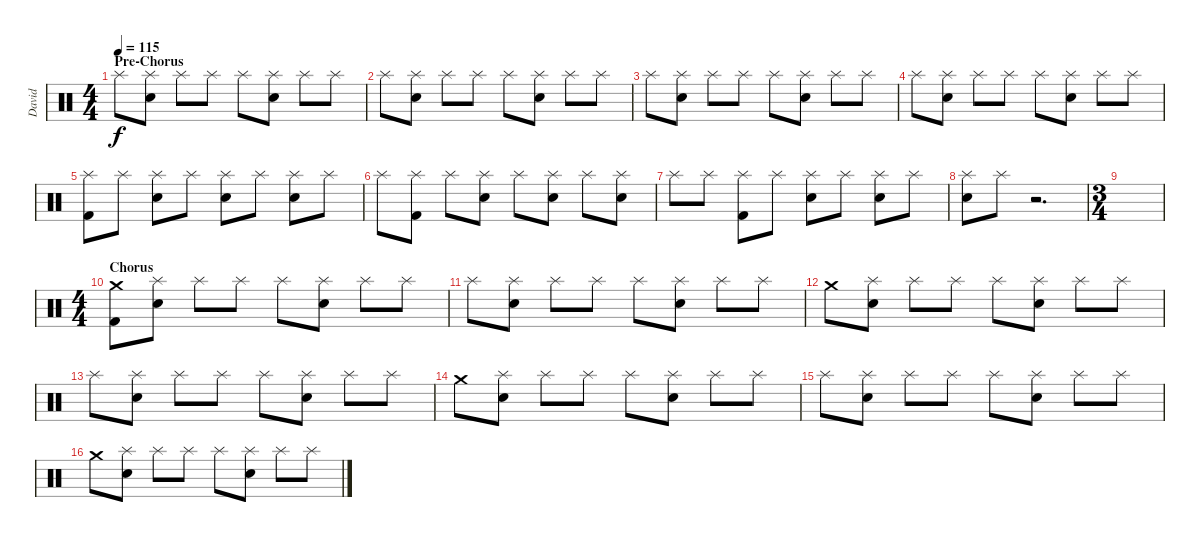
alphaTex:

\track ("David" "David") {instrument percussion}
\staff {score}
\articulation defaults
\ts (4 4)
\section ("" "Pre-Chorus")
\tempo 115
\clef neutral
\ks c "Splash (hit)".8{dy f}
("Splash (hit)" "Electric Snare (hit)").8 "Splash (hit)".8 "Splash (hit)".8 "Splash (hit)".8 ("Splash (hit)" "Electric Snare (hit)").8 "Splash (hit)".8 "Splash (hit)".8 |
"Splash (hit)".8 ("Splash (hit)" "Electric Snare (hit)").8 "Splash (hit)".8 "Splash (hit)".8 "Splash (hit)".8 ("Splash (hit)" "Electric Snare (hit)").8 "Splash (hit)".8 "Splash (hit)".8 |
"Splash (hit)".8 ("Splash (hit)" "Electric Snare (hit)").8 "Splash (hit)".8 "Splash (hit)".8 "Splash (hit)".8 ("Splash (hit)" "Electric Snare (hit)").8 "Splash (hit)".8 "Splash (hit)".8 |
"Splash (hit)".8 ("Splash (hit)" "Electric Snare (hit)").8 "Splash (hit)".8 "Splash (hit)".8 "Splash (hit)".8 ("Splash (hit)" "Electric Snare (hit)").8 "Splash (hit)".8 "Splash (hit)".8 |
("Splash (hit)" "Kick (hit) 2").8 "Splash (hit)".8 ("Splash (hit)" "Electric Snare (hit)").8 "Splash (hit)".8 ("Splash (hit)" "Electric Snare (hit)").8 "Splash (hit)".8 ("Splash (hit)" "Electric Snare (hit)").8 "Splash (hit)".8 |
"Splash (hit)".8 ("Splash (hit)" "Kick (hit) 2").8 "Splash (hit)".8 ("Splash (hit)" "Electric Snare (hit)").8 "Splash (hit)".8 ("Splash (hit)" "Electric Snare (hit)").8 "Splash (hit)".8 ("Splash (hit)" "Electric Snare (hit)").8 |
"Splash (hit)".8 "Splash (hit)".8 ("Splash (hit)" "Kick (hit) 2").8 "Splash (hit)".8 ("Splash (hit)" "Electric Snare (hit)").8 "Splash (hit)".8 ("Splash (hit)" "Electric Snare (hit)").8 "Splash (hit)".8 |
("Splash (hit)" "Electric Snare (hit)").8 "Splash (hit)".8 r.2{d} |
\ts (3 4)
|
\ts (4 4)
\section ("" "Chorus")
("Crash medium (hit)" "Kick (hit) 2").8 ("Splash (hit)" "Electric Snare (hit)").8 "Splash (hit)".8 "Splash (hit)".8 "Splash (hit)".8 ("Splash (hit)" "Electric Snare (hit)").8 "Splash (hit)".8 "Splash (hit)".8 |
"Splash (hit)".8 ("Splash (hit)" "Electric Snare (hit)").8 "Splash (hit)".8 "Splash (hit)".8 "Splash (hit)".8 ("Splash (hit)" "Electric Snare (hit)").8 "Splash (hit)".8 "Splash (hit)".8 |
"Crash medium (hit)".8 ("Splash (hit)" "Electric Snare (hit)").8 "Splash (hit)".8 "Splash (hit)".8 "Splash (hit)".8 ("Splash (hit)" "Electric Snare (hit)").8 "Splash (hit)".8 "Splash (hit)".8 |
"Splash (hit)".8 ("Splash (hit)" "Electric Snare (hit)").8 "Splash (hit)".8 "Splash (hit)".8 "Splash (hit)".8 ("Splash (hit)" "Electric Snare (hit)").8 "Splash (hit)".8 "Splash (hit)".8 |
"Crash medium (hit)".8 ("Splash (hit)" "Electric Snare (hit)").8 "Splash (hit)".8 "Splash (hit)".8 "Splash (hit)".8 ("Splash (hit)" "Electric Snare (hit)").8 "Splash (hit)".8 "Splash (hit)".8 |
"Splash (hit)".8 ("Splash (hit)" "Electric Snare (hit)").8 "Splash (hit)".8 "Splash (hit)".8 "Splash (hit)".8 ("Splash (hit)" "Electric Snare (hit)").8 "Splash (hit)".8 "Splash (hit)".8 |
"Crash medium (hit)".8 ("Splash (hit)" "Electric Snare (hit)").8 "Splash (hit)".8 "Splash (hit)".8 "Splash (hit)".8 ("Splash (hit)" "Electric Snare (hit)").8 "Splash (hit)".8 "Splash (hit)".8
